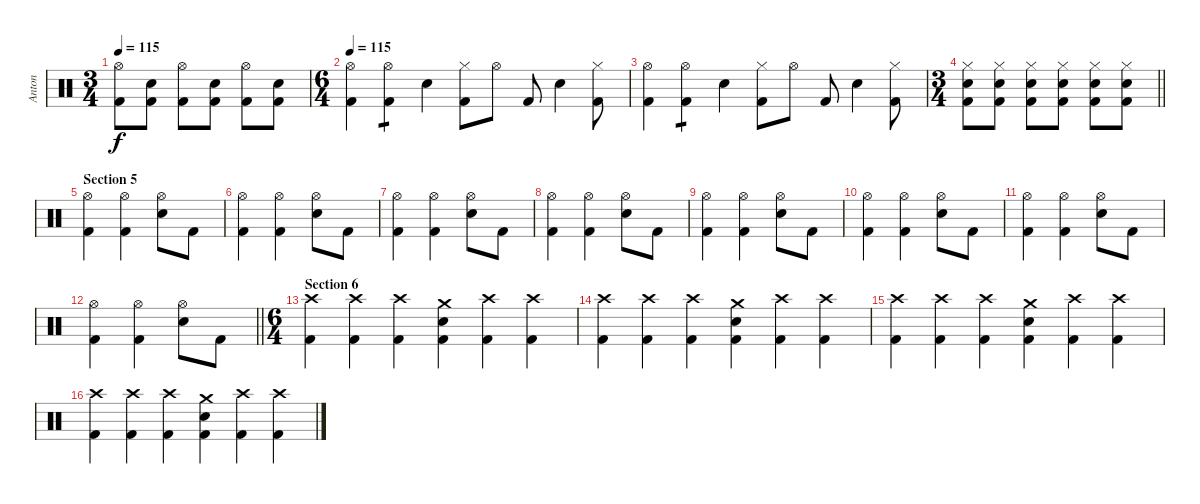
\track ("Anton" "Anton") {instrument percussion}
\staff {score}
\articulation defaults
\ts (3 4)
\tempo 115
\clef neutral
\ks c
("Hi-Hat (open)" "Kick (hit) 2").8{dy f} ("Electric Snare (hit)" "Kick (hit) 2").8 ("Hi-Hat (open)" "Kick (hit) 2").8 ("Electric Snare (hit)" "Kick (hit) 2").8 ("Hi-Hat (open)" "Kick (hit) 2").8 ("Electric Snare (hit)" "Kick (hit) 2").8 |
\ts (6 4)
\tempo 115
("Hi-Hat (open)" "Kick (hit) 2").4 ("Hi-Hat (open)" "Kick (hit) 2").4{tp 1} "Electric Snare (hit)".4 ("Hi-Hat (closed)" "Kick (hit) 2").8 "Hi-Hat (open)".8 "Kick (hit) 2".8 "Electric Snare (hit)".4 ("Hi-Hat (closed)" "Kick (hit) 2").8 |
("Hi-Hat (open)" "Kick (hit) 2").4 ("Hi-Hat (open)" "Kick (hit) 2").4{tp 1} "Electric Snare (hit)".4 ("Hi-Hat (closed)" "Kick (hit) 2").8 "Hi-Hat (open)".8 "Kick (hit) 2".8 "Electric Snare (hit)".4 ("Hi-Hat (closed)" "Kick (hit) 2").8 |
\ts (3 4)
\barLineRight lightlight
("Hi-Hat (closed)" "Electric Snare (hit)" "Kick (hit) 2").8 ("Hi-Hat (closed)" "Electric Snare (hit)" "Kick (hit) 2").8 ("Hi-Hat (closed)" "Electric Snare (hit)" "Kick (hit) 2").8 ("Hi-Hat (closed)" "Electric Snare (hit)" "Kick (hit) 2").8 ("Hi-Hat (closed)" "Electric Snare (hit)" "Kick (hit) 2").8 ("Hi-Hat (closed)" "Electric Snare (hit)" "Kick (hit) 2").8 |
\section ("" "Section 5")
("Hi-Hat (open)" "Kick (hit) 2").4 ("Hi-Hat (open)" "Kick (hit) 2").4 ("Hi-Hat (open)" "Electric Snare (hit)").8 "Kick (hit) 2".8 |
("Hi-Hat (open)" "Kick (hit) 2").4 ("Hi-Hat (open)" "Kick (hit) 2").4 ("Hi-Hat (open)" "Electric Snare (hit)").8 "Kick (hit) 2".8 |
("Hi-Hat (open)" "Kick (hit) 2").4 ("Hi-Hat (open)" "Kick (hit) 2").4 ("Hi-Hat (open)" "Electric Snare (hit)").8 "Kick (hit) 2".8 |
("Hi-Hat (open)" "Kick (hit) 2").4 ("Hi-Hat (open)" "Kick (hit) 2").4 ("Hi-Hat (open)" "Electric Snare (hit)").8 "Kick (hit) 2".8 |
("Hi-Hat (open)" "Kick (hit) 2").4 ("Hi-Hat (open)" "Kick (hit) 2").4 ("Hi-Hat (open)" "Electric Snare (hit)").8 "Kick (hit) 2".8 |
("Hi-Hat (open)" "Kick (hit) 2").4 ("Hi-Hat (open)" "Kick (hit) 2").4 ("Hi-Hat (open)" "Electric Snare (hit)").8 "Kick (hit) 2".8 |
("Hi-Hat (open)" "Kick (hit) 2").4 ("Hi-Hat (open)" "Kick (hit) 2").4 ("Hi-Hat (open)" "Electric Snare (hit)").8 "Kick (hit) 2".8 |
\barLineRight lightlight
("Hi-Hat (open)" "Kick (hit) 2").4 ("Hi-Hat (open)" "Kick (hit) 2").4 ("Hi-Hat (open)" "Electric Snare (hit)").8 "Kick (hit) 2".8 |
\ts (6 4)
\section ("" "Section 6")
("Crash high (hit)" "Kick (hit) 2").4 ("Crash high (hit)" "Kick (hit) 2").4 ("Crash high (hit)" "Kick (hit) 2").4 ("Crash medium (hit)" "Electric Snare (hit)" "Kick (hit) 2").4 ("Crash high (hit)" "Kick (hit) 2").4 ("Crash high (hit)" "Kick (hit) 2").4 |
("Crash high (hit)" "Kick (hit) 2").4 ("Crash high (hit)" "Kick (hit) 2").4 ("Crash high (hit)" "Kick (hit) 2").4 ("Crash medium (hit)" "Electric Snare (hit)" "Kick (hit) 2").4 ("Crash high (hit)" "Kick (hit) 2").4 ("Crash high (hit)" "Kick (hit) 2").4 |
("Crash high (hit)" "Kick (hit) 2").4 ("Crash high (hit)" "Kick (hit) 2").4 ("Crash high (hit)" "Kick (hit) 2").4 ("Crash medium (hit)" "Electric Snare (hit)" "Kick (hit) 2").4 ("Crash high (hit)" "Kick (hit) 2").4 ("Crash high (hit)" "Kick (hit) 2").4 |
("Crash high (hit)" "Kick (hit) 2").4 ("Crash high (hit)" "Kick (hit) 2").4 ("Crash high (hit)" "Kick (hit) 2").4 ("Crash medium (hit)" "Electric Snare (hit)" "Kick (hit) 2").4 ("Crash high (hit)" "Kick (hit) 2").4 ("Crash high (hit)" "Kick (hit) 2").4
